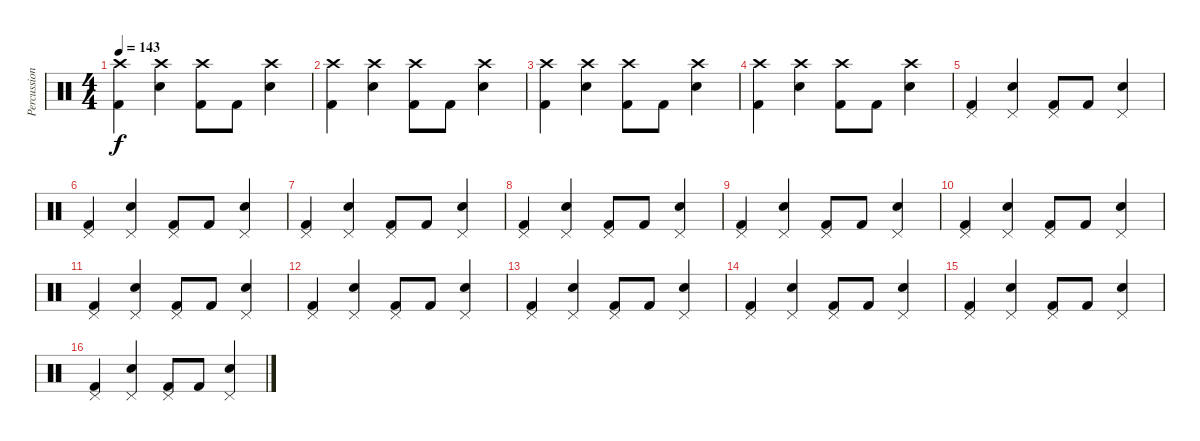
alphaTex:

\track ("Percussion" "Percussion") {instrument percussion}
\staff {score}
\articulation defaults
\ts (4 4)
\tempo 143
\clef neutral
\ks c
("Crash high (hit)" "Kick (hit) 2").4{dy f} ("Crash high (hit)" "Electric Snare (hit)").4 ("Crash high (hit)" "Kick (hit) 2").8 "Kick (hit) 2".8 ("Crash high (hit)" "Electric Snare (hit)").4 |
("Crash high (hit)" "Kick (hit) 2").4 ("Crash high (hit)" "Electric Snare (hit)").4 ("Crash high (hit)" "Kick (hit) 2").8 "Kick (hit) 2".8 ("Crash high (hit)" "Electric Snare (hit)").4 |
("Crash high (hit)" "Kick (hit) 2").4 ("Crash high (hit)" "Electric Snare (hit)").4 ("Crash high (hit)" "Kick (hit) 2").8 "Kick (hit) 2".8 ("Crash high (hit)" "Electric Snare (hit)").4 |
("Crash high (hit)" "Kick (hit) 2").4 ("Crash high (hit)" "Electric Snare (hit)").4 ("Crash high (hit)" "Kick (hit) 2").8 "Kick (hit) 2".8 ("Crash high (hit)" "Electric Snare (hit)").4 |
("Pedal Hi-Hat (hit)" "Kick (hit) 2").4 ("Pedal Hi-Hat (hit)" "Electric Snare (hit)").4 ("Pedal Hi-Hat (hit)" "Kick (hit) 2").8 "Kick (hit) 2".8 ("Pedal Hi-Hat (hit)" "Electric Snare (hit)").4 |
("Pedal Hi-Hat (hit)" "Kick (hit) 2").4 ("Pedal Hi-Hat (hit)" "Electric Snare (hit)").4 ("Pedal Hi-Hat (hit)" "Kick (hit) 2").8 "Kick (hit) 2".8 ("Pedal Hi-Hat (hit)" "Electric Snare (hit)").4 |
("Pedal Hi-Hat (hit)" "Kick (hit) 2").4 ("Pedal Hi-Hat (hit)" "Electric Snare (hit)").4 ("Pedal Hi-Hat (hit)" "Kick (hit) 2").8 "Kick (hit) 2".8 ("Pedal Hi-Hat (hit)" "Electric Snare (hit)").4 |
("Pedal Hi-Hat (hit)" "Kick (hit) 2").4 ("Pedal Hi-Hat (hit)" "Electric Snare (hit)").4 ("Pedal Hi-Hat (hit)" "Kick (hit) 2").8 "Kick (hit) 2".8 ("Pedal Hi-Hat (hit)" "Electric Snare (hit)").4 |
("Pedal Hi-Hat (hit)" "Kick (hit) 2").4 ("Pedal Hi-Hat (hit)" "Electric Snare (hit)").4 ("Pedal Hi-Hat (hit)" "Kick (hit) 2").8 "Kick (hit) 2".8 ("Pedal Hi-Hat (hit)" "Electric Snare (hit)").4 |
("Pedal Hi-Hat (hit)" "Kick (hit) 2").4 ("Pedal Hi-Hat (hit)" "Electric Snare (hit)").4 ("Pedal Hi-Hat (hit)" "Kick (hit) 2").8 "Kick (hit) 2".8 ("Pedal Hi-Hat (hit)" "Electric Snare (hit)").4 |
("Pedal Hi-Hat (hit)" "Kick (hit) 2").4 ("Pedal Hi-Hat (hit)" "Electric Snare (hit)").4 ("Pedal Hi-Hat (hit)" "Kick (hit) 2").8 "Kick (hit) 2".8 ("Pedal Hi-Hat (hit)" "Electric Snare (hit)").4 |
("Pedal Hi-Hat (hit)" "Kick (hit) 2").4 ("Pedal Hi-Hat (hit)" "Electric Snare (hit)").4 ("Pedal Hi-Hat (hit)" "Kick (hit) 2").8 "Kick (hit) 2".8 ("Pedal Hi-Hat (hit)" "Electric Snare (hit)").4 |
("Pedal Hi-Hat (hit)" "Kick (hit) 2").4 ("Pedal Hi-Hat (hit)" "Electric Snare (hit)").4 ("Pedal Hi-Hat (hit)" "Kick (hit) 2").8 "Kick (hit) 2".8 ("Pedal Hi-Hat (hit)" "Electric Snare (hit)").4 |
("Pedal Hi-Hat (hit)" "Kick (hit) 2").4 ("Pedal Hi-Hat (hit)" "Electric Snare (hit)").4 ("Pedal Hi-Hat (hit)" "Kick (hit) 2").8 "Kick (hit) 2".8 ("Pedal Hi-Hat (hit)" "Electric Snare (hit)").4 |
("Pedal Hi-Hat (hit)" "Kick (hit) 2").4 ("Pedal Hi-Hat (hit)" "Electric Snare (hit)").4 ("Pedal Hi-Hat (hit)" "Kick (hit) 2").8 "Kick (hit) 2".8 ("Pedal Hi-Hat (hit)" "Electric Snare (hit)").4 |
("Pedal Hi-Hat (hit)" "Kick (hit) 2").4 ("Pedal Hi-Hat (hit)" "Electric Snare (hit)").4 ("Pedal Hi-Hat (hit)" "Kick (hit) 2").8 "Kick (hit) 2".8 ("Pedal Hi-Hat (hit)" "Electric Snare (hit)").4
